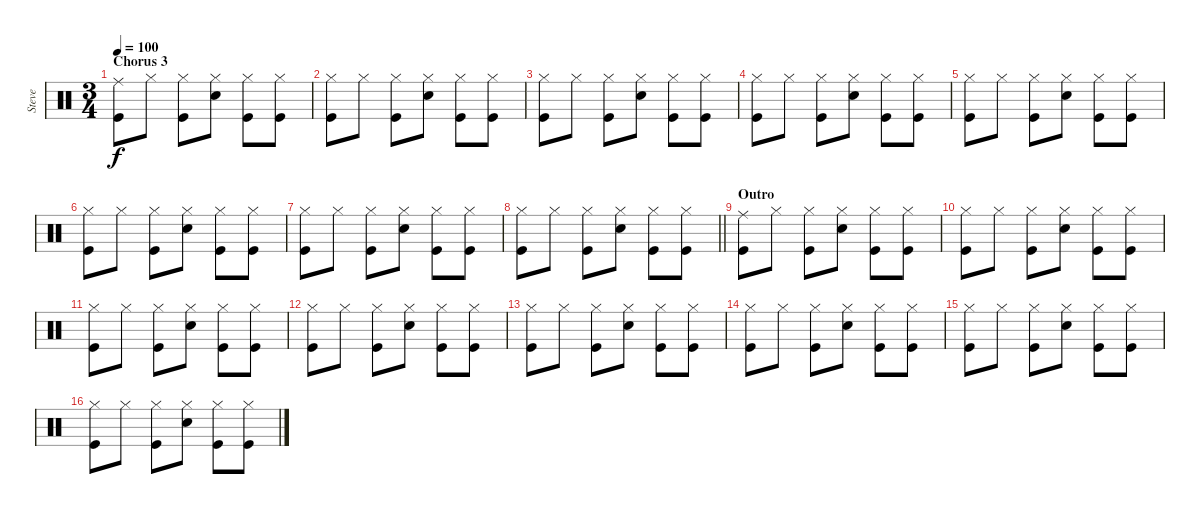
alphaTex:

\track ("Steve" "Steve") {instrument percussion}
\staff {score}
\articulation defaults
\ts (3 4)
\section ("" "Chorus 3")
\tempo 100
\clef neutral
\ks c
("Kick (hit)" "Ride (middle)").8{dy f} "Hi-Hat (closed)".8 ("Kick (hit)" "Hi-Hat (closed)").8 ("Snare (hit) 2" "Hi-Hat (closed)").8 ("Kick (hit)" "Hi-Hat (closed)").8 ("Kick (hit)" "Hi-Hat (closed)").8 |
("Kick (hit)" "Hi-Hat (closed)").8 "Hi-Hat (closed)".8 ("Kick (hit)" "Hi-Hat (closed)").8 ("Snare (hit) 2" "Hi-Hat (closed)").8 ("Kick (hit)" "Hi-Hat (closed)").8 ("Kick (hit)" "Hi-Hat (closed)").8 |
("Kick (hit)" "Hi-Hat (closed)").8 "Hi-Hat (closed)".8 ("Kick (hit)" "Hi-Hat (closed)").8 ("Snare (hit) 2" "Hi-Hat (closed)").8 ("Kick (hit)" "Hi-Hat (closed)").8 ("Kick (hit)" "Hi-Hat (closed)").8 |
("Kick (hit)" "Hi-Hat (closed)").8 "Hi-Hat (closed)".8 ("Kick (hit)" "Hi-Hat (closed)").8 ("Snare (hit) 2" "Hi-Hat (closed)").8 ("Kick (hit)" "Hi-Hat (closed)").8 ("Kick (hit)" "Hi-Hat (closed)").8 |
("Kick (hit)" "Hi-Hat (closed)").8 "Hi-Hat (closed)".8 ("Kick (hit)" "Hi-Hat (closed)").8 ("Snare (hit) 2" "Hi-Hat (closed)").8 ("Kick (hit)" "Hi-Hat (closed)").8 ("Kick (hit)" "Hi-Hat (closed)").8 |
("Kick (hit)" "Hi-Hat (closed)").8 "Hi-Hat (closed)".8 ("Kick (hit)" "Hi-Hat (closed)").8 ("Snare (hit) 2" "Hi-Hat (closed)").8 ("Kick (hit)" "Hi-Hat (closed)").8 ("Kick (hit)" "Hi-Hat (closed)").8 |
("Kick (hit)" "Hi-Hat (closed)").8 "Hi-Hat (closed)".8 ("Kick (hit)" "Hi-Hat (closed)").8 ("Snare (hit) 2" "Hi-Hat (closed)").8 ("Kick (hit)" "Hi-Hat (closed)").8 ("Kick (hit)" "Hi-Hat (closed)").8 |
\barLineRight lightlight
("Kick (hit)" "Hi-Hat (closed)").8 "Hi-Hat (closed)".8 ("Kick (hit)" "Hi-Hat (closed)").8 ("Snare (hit) 2" "Hi-Hat (closed)").8 ("Kick (hit)" "Hi-Hat (closed)").8 ("Kick (hit)" "Hi-Hat (closed)").8 |
\section ("" "Outro")
("Kick (hit)" "Ride (middle)").8 "Hi-Hat (closed)".8 ("Kick (hit)" "Hi-Hat (closed)").8 ("Snare (hit) 2" "Hi-Hat (closed)").8 ("Kick (hit)" "Hi-Hat (closed)").8 ("Kick (hit)" "Hi-Hat (closed)").8 |
("Kick (hit)" "Hi-Hat (closed)").8 "Hi-Hat (closed)".8 ("Kick (hit)" "Hi-Hat (closed)").8 ("Snare (hit) 2" "Hi-Hat (closed)").8 ("Kick (hit)" "Hi-Hat (closed)").8 ("Kick (hit)" "Hi-Hat (closed)").8 |
("Kick (hit)" "Hi-Hat (closed)").8 "Hi-Hat (closed)".8 ("Kick (hit)" "Hi-Hat (closed)").8 ("Snare (hit) 2" "Hi-Hat (closed)").8 ("Kick (hit)" "Hi-Hat (closed)").8 ("Kick (hit)" "Hi-Hat (closed)").8 |
("Kick (hit)" "Hi-Hat (closed)").8 "Hi-Hat (closed)".8 ("Kick (hit)" "Hi-Hat (closed)").8 ("Snare (hit) 2" "Hi-Hat (closed)").8 ("Kick (hit)" "Hi-Hat (closed)").8 ("Kick (hit)" "Hi-Hat (closed)").8 |
("Kick (hit)" "Hi-Hat (closed)").8 "Hi-Hat (closed)".8 ("Kick (hit)" "Hi-Hat (closed)").8 ("Snare (hit) 2" "Hi-Hat (closed)").8 ("Kick (hit)" "Hi-Hat (closed)").8 ("Kick (hit)" "Hi-Hat (closed)").8 |
("Kick (hit)" "Hi-Hat (closed)").8 "Hi-Hat (closed)".8 ("Kick (hit)" "Hi-Hat (closed)").8 ("Snare (hit) 2" "Hi-Hat (closed)").8 ("Kick (hit)" "Hi-Hat (closed)").8 ("Kick (hit)" "Hi-Hat (closed)").8 |
("Kick (hit)" "Hi-Hat (closed)").8 "Hi-Hat (closed)".8 ("Kick (hit)" "Hi-Hat (closed)").8 ("Snare (hit) 2" "Hi-Hat (closed)").8 ("Kick (hit)" "Hi-Hat (closed)").8 ("Kick (hit)" "Hi-Hat (closed)").8 |
("Kick (hit)" "Hi-Hat (closed)").8 "Hi-Hat (closed)".8 ("Kick (hit)" "Hi-Hat (closed)").8 ("Snare (hit) 2" "Hi-Hat (closed)").8 ("Kick (hit)" "Hi-Hat (closed)").8 ("Kick (hit)" "Hi-Hat (closed)").8
